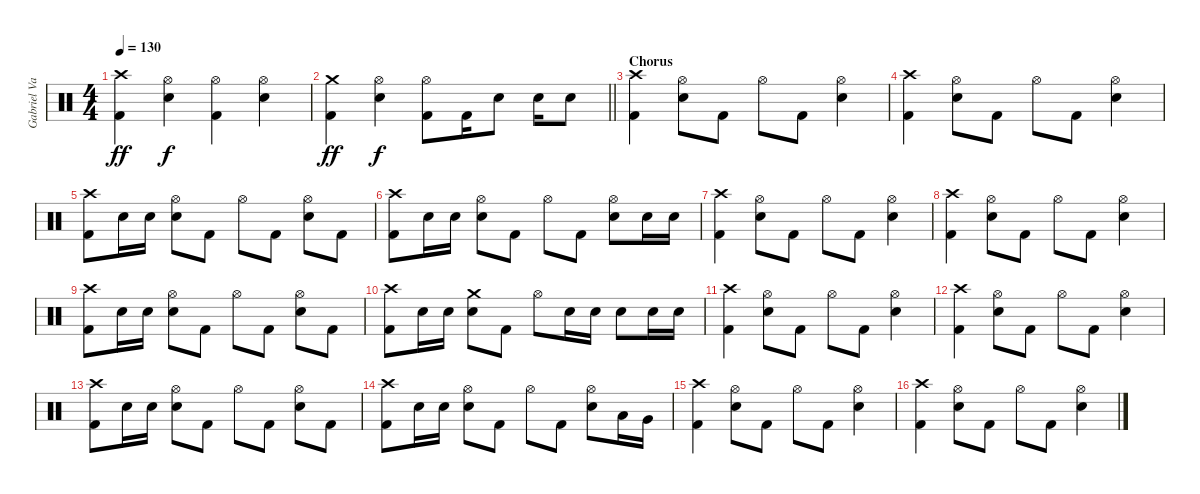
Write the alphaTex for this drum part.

\track ("Gabriel Valerio" "Gabriel Va") {instrument percussion}
\staff {score}
\articulation defaults
\ts (4 4)
\tempo 130
\clef neutral
\ks c
("Crash high (hit)" "Kick (hit) 2").4{dy ff} ("Hi-Hat (open)" "Snare (hit) 2").4{dy f} ("Hi-Hat (open)" "Kick (hit) 2").4 ("Hi-Hat (open)" "Snare (hit) 2").4 |
\barLineRight lightlight
("Crash medium (hit)" "Kick (hit) 2").4{dy ff} ("Hi-Hat (open)" "Snare (hit) 2").4{dy f} ("Hi-Hat (open)" "Kick (hit) 2").8 "Kick (hit) 2".16 "Snare (hit) 2".8 "Snare (hit) 2".16 "Snare (hit) 2".8 |
\section ("" "Chorus")
("Crash high (hit)" "Kick (hit) 2").4 ("Hi-Hat (open)" "Snare (hit) 2").8 "Kick (hit) 2".8 "Hi-Hat (open)".8 "Kick (hit) 2".8 ("Hi-Hat (open)" "Snare (hit) 2").4 |
("Crash high (hit)" "Kick (hit) 2").4 ("Hi-Hat (open)" "Snare (hit) 2").8 "Kick (hit) 2".8 "Hi-Hat (open)".8 "Kick (hit) 2".8 ("Hi-Hat (open)" "Snare (hit) 2").4 |
("Crash high (hit)" "Kick (hit) 2").8 "Snare (hit) 2".16 "Snare (hit) 2".16 ("Hi-Hat (open)" "Snare (hit) 2").8 "Kick (hit) 2".8 "Hi-Hat (open)".8 "Kick (hit) 2".8 ("Hi-Hat (open)" "Snare (hit) 2").8 "Kick (hit) 2".8 |
("Crash high (hit)" "Kick (hit) 2").8 "Snare (hit) 2".16 "Snare (hit) 2".16 ("Hi-Hat (open)" "Snare (hit) 2").8 "Kick (hit) 2".8 "Hi-Hat (open)".8 "Kick (hit) 2".8 ("Hi-Hat (open)" "Snare (hit) 2").8 "Snare (hit) 2".16 "Snare (hit) 2".16 |
("Crash high (hit)" "Kick (hit) 2").4 ("Hi-Hat (open)" "Snare (hit) 2").8 "Kick (hit) 2".8 "Hi-Hat (open)".8 "Kick (hit) 2".8 ("Hi-Hat (open)" "Snare (hit) 2").4 |
("Crash high (hit)" "Kick (hit) 2").4 ("Hi-Hat (open)" "Snare (hit) 2").8 "Kick (hit) 2".8 "Hi-Hat (open)".8 "Kick (hit) 2".8 ("Hi-Hat (open)" "Snare (hit) 2").4 |
("Crash high (hit)" "Kick (hit) 2").8 "Snare (hit) 2".16 "Snare (hit) 2".16 ("Hi-Hat (open)" "Snare (hit) 2").8 "Kick (hit) 2".8 "Hi-Hat (open)".8 "Kick (hit) 2".8 ("Hi-Hat (open)" "Snare (hit) 2").8 "Kick (hit) 2".8 |
("Crash high (hit)" "Kick (hit) 2").8 "Snare (hit) 2".16 "Snare (hit) 2".16 ("Crash medium (hit)" "Snare (hit) 2").8 "Kick (hit) 2".8 "Hi-Hat (open)".8 "Snare (hit) 2".16 "Snare (hit) 2".16 "Snare (hit) 2".8 "Snare (hit) 2".16 "Snare (hit) 2".16 |
("Crash high (hit)" "Kick (hit) 2").4 ("Hi-Hat (open)" "Snare (hit) 2").8 "Kick (hit) 2".8 "Hi-Hat (open)".8 "Kick (hit) 2".8 ("Hi-Hat (open)" "Snare (hit) 2").4 |
("Crash high (hit)" "Kick (hit) 2").4 ("Hi-Hat (open)" "Snare (hit) 2").8 "Kick (hit) 2".8 "Hi-Hat (open)".8 "Kick (hit) 2".8 ("Hi-Hat (open)" "Snare (hit) 2").4 |
("Crash high (hit)" "Kick (hit) 2").8 "Snare (hit) 2".16 "Snare (hit) 2".16 ("Hi-Hat (open)" "Snare (hit) 2").8 "Kick (hit) 2".8 "Hi-Hat (open)".8 "Kick (hit) 2".8 ("Hi-Hat (open)" "Snare (hit) 2").8 "Kick (hit) 2".8 |
("Crash high (hit)" "Kick (hit) 2").8 "Snare (hit) 2".16 "Snare (hit) 2".16 ("Hi-Hat (open)" "Snare (hit) 2").8 "Kick (hit) 2".8 "Hi-Hat (open)".8 "Kick (hit) 2".8 ("Hi-Hat (open)" "Snare (hit) 2").8 "Low Tom (hit)".16 "Very Low Tom (hit)".16 |
("Crash high (hit)" "Kick (hit) 2").4 ("Hi-Hat (open)" "Snare (hit) 2").8 "Kick (hit) 2".8 "Hi-Hat (open)".8 "Kick (hit) 2".8 ("Hi-Hat (open)" "Snare (hit) 2").4 |
("Crash high (hit)" "Kick (hit) 2").4 ("Hi-Hat (open)" "Snare (hit) 2").8 "Kick (hit) 2".8 "Hi-Hat (open)".8 "Kick (hit) 2".8 ("Hi-Hat (open)" "Snare (hit) 2").4
